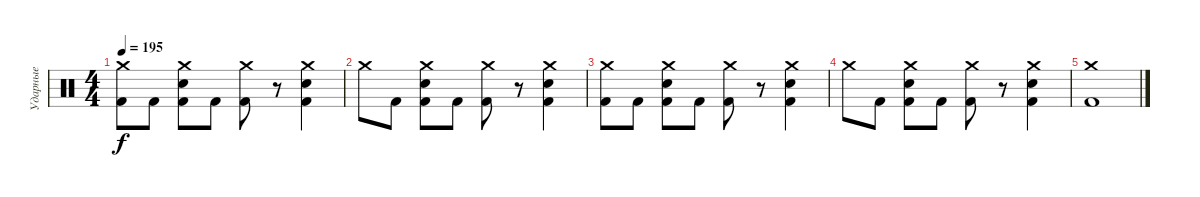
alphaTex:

\track ("Ударные" "Ударные") {instrument percussion}
\staff {score}
\articulation defaults
\ts (4 4)
\tempo 195
\clef neutral
\ks c
("Crash medium (hit)" "Kick (hit) 2").8{dy f} "Kick (hit) 2".8 ("Crash medium (hit)" "Electric Snare (hit)" "Kick (hit) 2").8 "Kick (hit) 2".8 ("Crash medium (hit)" "Kick (hit) 2").8 r.8 ("Crash medium (hit)" "Electric Snare (hit)" "Kick (hit) 2").4 |
"Crash medium (hit)".8 "Kick (hit) 2".8 ("Crash medium (hit)" "Electric Snare (hit)" "Kick (hit) 2").8 "Kick (hit) 2".8 ("Crash medium (hit)" "Kick (hit) 2").8 r.8 ("Crash medium (hit)" "Electric Snare (hit)" "Kick (hit) 2").4 |
("Crash medium (hit)" "Kick (hit) 2").8 "Kick (hit) 2".8 ("Crash medium (hit)" "Electric Snare (hit)" "Kick (hit) 2").8 "Kick (hit) 2".8 ("Crash medium (hit)" "Kick (hit) 2").8 r.8 ("Crash medium (hit)" "Electric Snare (hit)" "Kick (hit) 2").4 |
"Crash medium (hit)".8 "Kick (hit) 2".8 ("Crash medium (hit)" "Electric Snare (hit)" "Kick (hit) 2").8 "Kick (hit) 2".8 ("Crash medium (hit)" "Kick (hit) 2").8 r.8 ("Crash medium (hit)" "Electric Snare (hit)" "Kick (hit) 2").4 |
("Crash medium (hit)" "Kick (hit) 2").1
